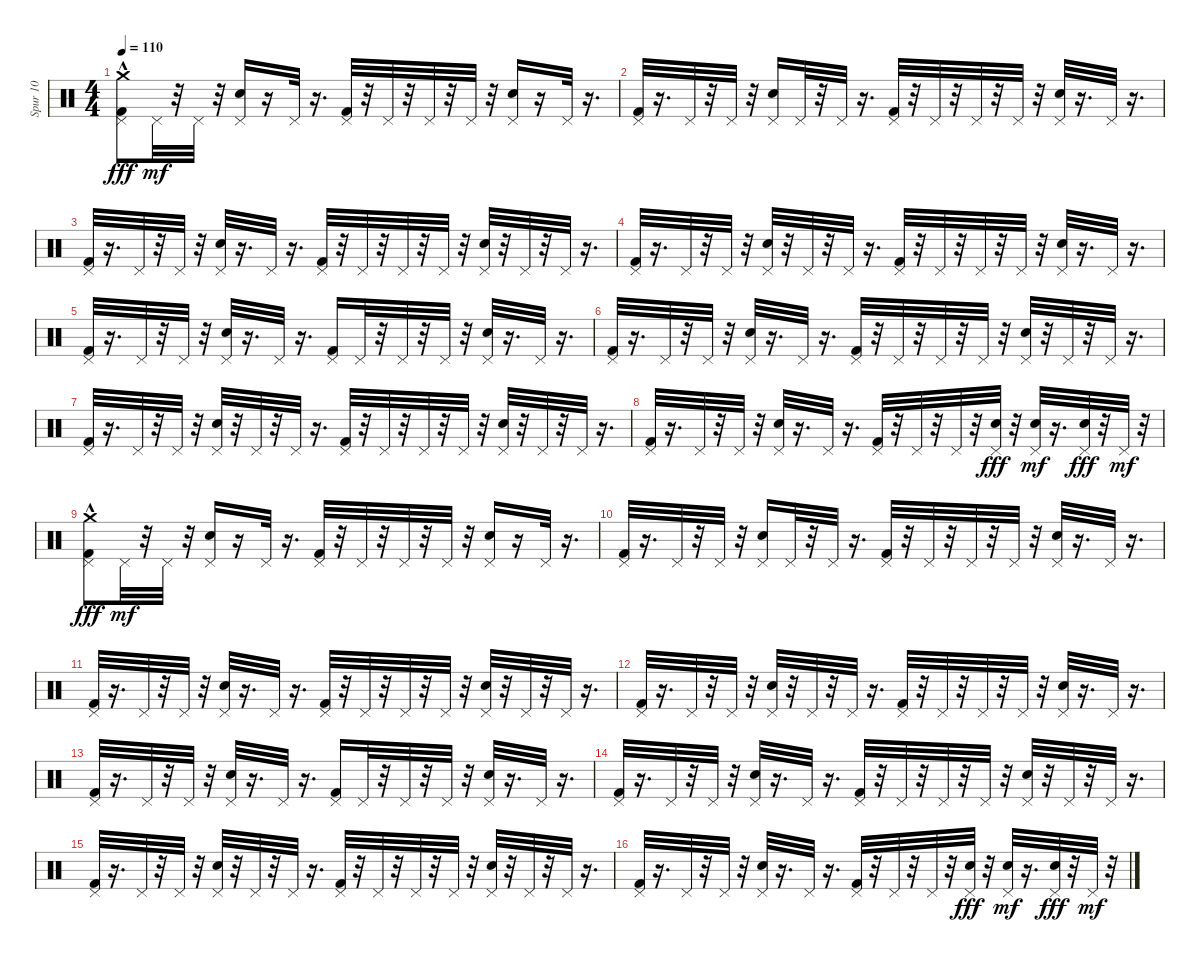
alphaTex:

\track ("Spur 10" "Spur 10") {instrument percussion}
\staff {score}
\articulation defaults
\ts (4 4)
\tempo 110
\clef neutral
\ks c
("Kick (hit) 2" "Pedal Hi-Hat (hit)" "Crash medium (hit)"{hac}).8{dy fff} "Pedal Hi-Hat (hit)".32{dy mf} r.32 "Pedal Hi-Hat (hit)".32 r.32 ("Electric Snare (hit)" "Pedal Hi-Hat (hit)").16 r.16 "Pedal Hi-Hat (hit)".32 r.16{d} ("Kick (hit) 2" "Pedal Hi-Hat (hit)").32 r.32 "Pedal Hi-Hat (hit)".32 r.32 "Pedal Hi-Hat (hit)".32 r.32 "Pedal Hi-Hat (hit)".32 r.32 ("Electric Snare (hit)" "Pedal Hi-Hat (hit)").16 r.16 "Pedal Hi-Hat (hit)".32 r.16{d} |
("Kick (hit) 2" "Pedal Hi-Hat (hit)").32 r.16{d} "Pedal Hi-Hat (hit)".32 r.32 "Pedal Hi-Hat (hit)".32 r.32 ("Electric Snare (hit)" "Pedal Hi-Hat (hit)").16 "Pedal Hi-Hat (hit)".32 r.32 "Pedal Hi-Hat (hit)".32 r.16{d} ("Kick (hit) 2" "Pedal Hi-Hat (hit)").32 r.32 "Pedal Hi-Hat (hit)".32 r.32 "Pedal Hi-Hat (hit)".32 r.32 "Pedal Hi-Hat (hit)".32 r.32 ("Electric Snare (hit)" "Pedal Hi-Hat (hit)").32 r.16{d} "Pedal Hi-Hat (hit)".32 r.16{d} |
("Kick (hit) 2" "Pedal Hi-Hat (hit)").32 r.16{d} "Pedal Hi-Hat (hit)".32 r.32 "Pedal Hi-Hat (hit)".32 r.32 ("Electric Snare (hit)" "Pedal Hi-Hat (hit)").32 r.16{d} "Pedal Hi-Hat (hit)".32 r.16{d} ("Kick (hit) 2" "Pedal Hi-Hat (hit)").32 r.32 "Pedal Hi-Hat (hit)".32 r.32 "Pedal Hi-Hat (hit)".32 r.32 "Pedal Hi-Hat (hit)".32 r.32 ("Electric Snare (hit)" "Pedal Hi-Hat (hit)").32 r.32 "Pedal Hi-Hat (hit)".32 r.32 "Pedal Hi-Hat (hit)".32 r.16{d} |
("Kick (hit) 2" "Pedal Hi-Hat (hit)").32 r.16{d} "Pedal Hi-Hat (hit)".32 r.32 "Pedal Hi-Hat (hit)".32 r.32 ("Electric Snare (hit)" "Pedal Hi-Hat (hit)").32 r.32 "Pedal Hi-Hat (hit)".32 r.32 "Pedal Hi-Hat (hit)".32 r.16{d} ("Kick (hit) 2" "Pedal Hi-Hat (hit)").32 r.32 "Pedal Hi-Hat (hit)".32 r.32 "Pedal Hi-Hat (hit)".32 r.32 "Pedal Hi-Hat (hit)".32 r.32 ("Electric Snare (hit)" "Pedal Hi-Hat (hit)").32 r.16{d} "Pedal Hi-Hat (hit)".32 r.16{d} |
("Kick (hit) 2" "Pedal Hi-Hat (hit)").32 r.16{d} "Pedal Hi-Hat (hit)".32 r.32 "Pedal Hi-Hat (hit)".32 r.32 ("Electric Snare (hit)" "Pedal Hi-Hat (hit)").32 r.16{d} "Pedal Hi-Hat (hit)".32 r.16{d} ("Kick (hit) 2" "Pedal Hi-Hat (hit)").16 "Pedal Hi-Hat (hit)".32 r.32 "Pedal Hi-Hat (hit)".32 r.32 "Pedal Hi-Hat (hit)".32 r.32 ("Electric Snare (hit)" "Pedal Hi-Hat (hit)").32 r.16{d} "Pedal Hi-Hat (hit)".32 r.16{d} |
("Kick (hit) 2" "Pedal Hi-Hat (hit)").32 r.16{d} "Pedal Hi-Hat (hit)".32 r.32 "Pedal Hi-Hat (hit)".32 r.32 ("Electric Snare (hit)" "Pedal Hi-Hat (hit)").32 r.16{d} "Pedal Hi-Hat (hit)".32 r.16{d} ("Kick (hit) 2" "Pedal Hi-Hat (hit)").32 r.32 "Pedal Hi-Hat (hit)".32 r.32 "Pedal Hi-Hat (hit)".32 r.32 "Pedal Hi-Hat (hit)".32 r.32 ("Electric Snare (hit)" "Pedal Hi-Hat (hit)").32 r.32 "Pedal Hi-Hat (hit)".32 r.32 "Pedal Hi-Hat (hit)".32 r.16{d} |
("Kick (hit) 2" "Pedal Hi-Hat (hit)").32 r.16{d} "Pedal Hi-Hat (hit)".32 r.32 "Pedal Hi-Hat (hit)".32 r.32 ("Electric Snare (hit)" "Pedal Hi-Hat (hit)").32 r.32 "Pedal Hi-Hat (hit)".32 r.32 "Pedal Hi-Hat (hit)".32 r.16{d} ("Kick (hit) 2" "Pedal Hi-Hat (hit)").32 r.32 "Pedal Hi-Hat (hit)".32 r.32 "Pedal Hi-Hat (hit)".32 r.32 "Pedal Hi-Hat (hit)".32 r.32 ("Electric Snare (hit)" "Pedal Hi-Hat (hit)").32 r.32 "Pedal Hi-Hat (hit)".32 r.32 "Pedal Hi-Hat (hit)".32 r.16{d} |
("Kick (hit) 2" "Pedal Hi-Hat (hit)").32 r.16{d} "Pedal Hi-Hat (hit)".32 r.32 "Pedal Hi-Hat (hit)".32 r.32 ("Electric Snare (hit)" "Pedal Hi-Hat (hit)").32 r.16{d} "Pedal Hi-Hat (hit)".32 r.16{d} ("Kick (hit) 2" "Pedal Hi-Hat (hit)").32 r.32 "Pedal Hi-Hat (hit)".32 r.32 "Pedal Hi-Hat (hit)".32 r.32 ("Pedal Hi-Hat (hit)" "Electric Snare (hit)").32{dy fff} r.32 ("Electric Snare (hit)" "Pedal Hi-Hat (hit)").32{dy mf} r.16{d} ("Pedal Hi-Hat (hit)" "Electric Snare (hit)").32{dy fff} r.32 "Pedal Hi-Hat (hit)".32{dy mf} r.32 |
("Kick (hit) 2" "Pedal Hi-Hat (hit)" "Crash medium (hit)"{hac}).8{dy fff} "Pedal Hi-Hat (hit)".32{dy mf} r.32 "Pedal Hi-Hat (hit)".32 r.32 ("Electric Snare (hit)" "Pedal Hi-Hat (hit)").16 r.16 "Pedal Hi-Hat (hit)".32 r.16{d} ("Kick (hit) 2" "Pedal Hi-Hat (hit)").32 r.32 "Pedal Hi-Hat (hit)".32 r.32 "Pedal Hi-Hat (hit)".32 r.32 "Pedal Hi-Hat (hit)".32 r.32 ("Electric Snare (hit)" "Pedal Hi-Hat (hit)").16 r.16 "Pedal Hi-Hat (hit)".32 r.16{d} |
("Kick (hit) 2" "Pedal Hi-Hat (hit)").32 r.16{d} "Pedal Hi-Hat (hit)".32 r.32 "Pedal Hi-Hat (hit)".32 r.32 ("Electric Snare (hit)" "Pedal Hi-Hat (hit)").16 "Pedal Hi-Hat (hit)".32 r.32 "Pedal Hi-Hat (hit)".32 r.16{d} ("Kick (hit) 2" "Pedal Hi-Hat (hit)").32 r.32 "Pedal Hi-Hat (hit)".32 r.32 "Pedal Hi-Hat (hit)".32 r.32 "Pedal Hi-Hat (hit)".32 r.32 ("Electric Snare (hit)" "Pedal Hi-Hat (hit)").32 r.16{d} "Pedal Hi-Hat (hit)".32 r.16{d} |
("Kick (hit) 2" "Pedal Hi-Hat (hit)").32 r.16{d} "Pedal Hi-Hat (hit)".32 r.32 "Pedal Hi-Hat (hit)".32 r.32 ("Electric Snare (hit)" "Pedal Hi-Hat (hit)").32 r.16{d} "Pedal Hi-Hat (hit)".32 r.16{d} ("Kick (hit) 2" "Pedal Hi-Hat (hit)").32 r.32 "Pedal Hi-Hat (hit)".32 r.32 "Pedal Hi-Hat (hit)".32 r.32 "Pedal Hi-Hat (hit)".32 r.32 ("Electric Snare (hit)" "Pedal Hi-Hat (hit)").32 r.32 "Pedal Hi-Hat (hit)".32 r.32 "Pedal Hi-Hat (hit)".32 r.16{d} |
("Kick (hit) 2" "Pedal Hi-Hat (hit)").32 r.16{d} "Pedal Hi-Hat (hit)".32 r.32 "Pedal Hi-Hat (hit)".32 r.32 ("Electric Snare (hit)" "Pedal Hi-Hat (hit)").32 r.32 "Pedal Hi-Hat (hit)".32 r.32 "Pedal Hi-Hat (hit)".32 r.16{d} ("Kick (hit) 2" "Pedal Hi-Hat (hit)").32 r.32 "Pedal Hi-Hat (hit)".32 r.32 "Pedal Hi-Hat (hit)".32 r.32 "Pedal Hi-Hat (hit)".32 r.32 ("Electric Snare (hit)" "Pedal Hi-Hat (hit)").32 r.16{d} "Pedal Hi-Hat (hit)".32 r.16{d} |
("Kick (hit) 2" "Pedal Hi-Hat (hit)").32 r.16{d} "Pedal Hi-Hat (hit)".32 r.32 "Pedal Hi-Hat (hit)".32 r.32 ("Electric Snare (hit)" "Pedal Hi-Hat (hit)").32 r.16{d} "Pedal Hi-Hat (hit)".32 r.16{d} ("Kick (hit) 2" "Pedal Hi-Hat (hit)").16 "Pedal Hi-Hat (hit)".32 r.32 "Pedal Hi-Hat (hit)".32 r.32 "Pedal Hi-Hat (hit)".32 r.32 ("Electric Snare (hit)" "Pedal Hi-Hat (hit)").32 r.16{d} "Pedal Hi-Hat (hit)".32 r.16{d} |
("Kick (hit) 2" "Pedal Hi-Hat (hit)").32 r.16{d} "Pedal Hi-Hat (hit)".32 r.32 "Pedal Hi-Hat (hit)".32 r.32 ("Electric Snare (hit)" "Pedal Hi-Hat (hit)").32 r.16{d} "Pedal Hi-Hat (hit)".32 r.16{d} ("Kick (hit) 2" "Pedal Hi-Hat (hit)").32 r.32 "Pedal Hi-Hat (hit)".32 r.32 "Pedal Hi-Hat (hit)".32 r.32 "Pedal Hi-Hat (hit)".32 r.32 ("Electric Snare (hit)" "Pedal Hi-Hat (hit)").32 r.32 "Pedal Hi-Hat (hit)".32 r.32 "Pedal Hi-Hat (hit)".32 r.16{d} |
("Kick (hit) 2" "Pedal Hi-Hat (hit)").32 r.16{d} "Pedal Hi-Hat (hit)".32 r.32 "Pedal Hi-Hat (hit)".32 r.32 ("Electric Snare (hit)" "Pedal Hi-Hat (hit)").32 r.32 "Pedal Hi-Hat (hit)".32 r.32 "Pedal Hi-Hat (hit)".32 r.16{d} ("Kick (hit) 2" "Pedal Hi-Hat (hit)").32 r.32 "Pedal Hi-Hat (hit)".32 r.32 "Pedal Hi-Hat (hit)".32 r.32 "Pedal Hi-Hat (hit)".32 r.32 ("Electric Snare (hit)" "Pedal Hi-Hat (hit)").32 r.32 "Pedal Hi-Hat (hit)".32 r.32 "Pedal Hi-Hat (hit)".32 r.16{d} |
("Kick (hit) 2" "Pedal Hi-Hat (hit)").32 r.16{d} "Pedal Hi-Hat (hit)".32 r.32 "Pedal Hi-Hat (hit)".32 r.32 ("Electric Snare (hit)" "Pedal Hi-Hat (hit)").32 r.16{d} "Pedal Hi-Hat (hit)".32 r.16{d} ("Kick (hit) 2" "Pedal Hi-Hat (hit)").32 r.32 "Pedal Hi-Hat (hit)".32 r.32 "Pedal Hi-Hat (hit)".32 r.32 ("Pedal Hi-Hat (hit)" "Electric Snare (hit)").32{dy fff} r.32 ("Electric Snare (hit)" "Pedal Hi-Hat (hit)").32{dy mf} r.16{d} ("Pedal Hi-Hat (hit)" "Electric Snare (hit)").32{dy fff} r.32 "Pedal Hi-Hat (hit)".32{dy mf} r.32
